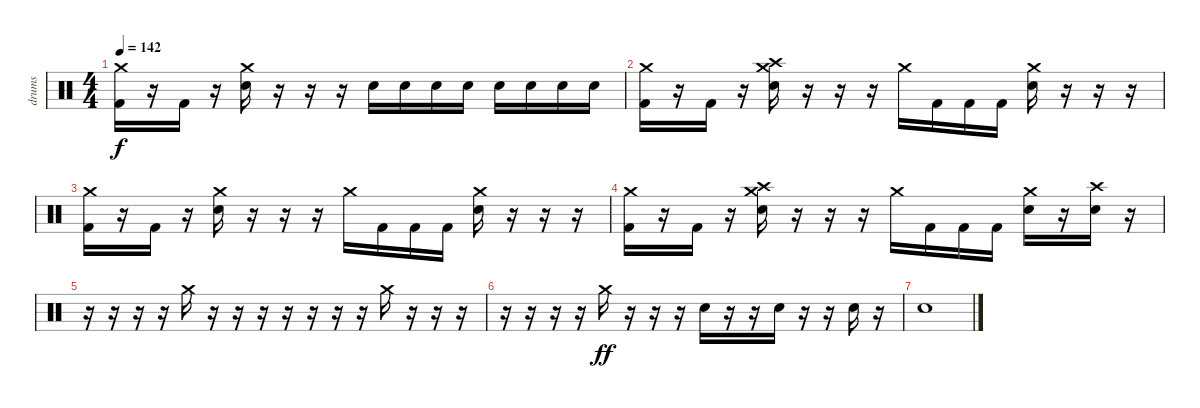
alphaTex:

\track ("drums" "drums") {instrument percussion}
\staff {score}
\articulation defaults
\ts (4 4)
\tempo 142
\clef neutral
\ks c
("Crash medium (hit)" "Kick (hit) 2").16{dy f} r.16 "Kick (hit) 2".16 r.16 ("Crash medium (hit)" "Electric Snare (hit)").16 r.16 r.16 r.16 "Electric Snare (hit)".16 "Electric Snare (hit)".16 "Electric Snare (hit)".16 "Electric Snare (hit)".16 "Electric Snare (hit)".16 "Electric Snare (hit)".16 "Electric Snare (hit)".16 "Electric Snare (hit)".16 |
("Crash medium (hit)" "Kick (hit) 2").16 r.16 "Kick (hit) 2".16 r.16 ("Crash high (hit)" "Crash medium (hit)" "Electric Snare (hit)").16 r.16 r.16 r.16 "Crash medium (hit)".16 "Kick (hit) 2".16 "Kick (hit) 2".16 "Kick (hit) 2".16 ("Crash medium (hit)" "Electric Snare (hit)").16 r.16 r.16 r.16 |
("Crash medium (hit)" "Kick (hit) 2").16 r.16 "Kick (hit) 2".16 r.16 ("Crash medium (hit)" "Electric Snare (hit)").16 r.16 r.16 r.16 "Crash medium (hit)".16 "Kick (hit) 2".16 "Kick (hit) 2".16 "Kick (hit) 2".16 ("Crash medium (hit)" "Electric Snare (hit)").16 r.16 r.16 r.16 |
("Crash medium (hit)" "Kick (hit) 2").16 r.16 "Kick (hit) 2".16 r.16 ("Crash high (hit)" "Crash medium (hit)" "Electric Snare (hit)").16 r.16 r.16 r.16 "Crash medium (hit)".16 "Kick (hit) 2".16 "Kick (hit) 2".16 "Kick (hit) 2".16 ("Crash medium (hit)" "Electric Snare (hit)").16 r.16 ("Crash high (hit)" "Electric Snare (hit)").16 r.16 |
r.16 r.16 r.16 r.16 "Crash medium (hit)".16 r.16 r.16 r.16 r.16 r.16 r.16 r.16 "Crash medium (hit)".16 r.16 r.16 r.16 |
r.16 r.16 r.16 r.16 "Crash medium (hit)".16{dy ff} r.16 r.16 r.16 "Electric Snare (hit)".16 r.16 r.16 "Electric Snare (hit)".16 r.16 r.16 "Electric Snare (hit)".16 r.16 |
"Electric Snare (hit)".1
